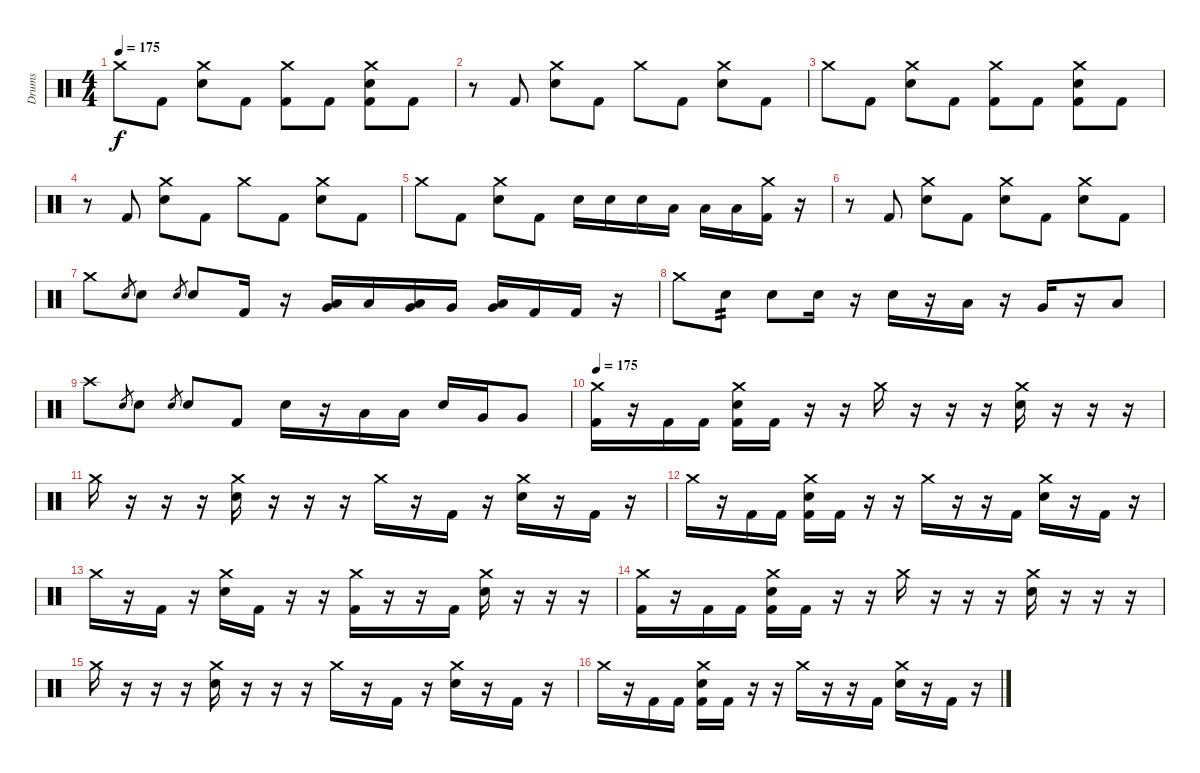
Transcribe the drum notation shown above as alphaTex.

\track ("Drums" "Drums") {instrument percussion}
\staff {score}
\articulation defaults
\ts (4 4)
\tempo 175
\clef neutral
\ks c "Crash medium (hit)".8{dy f} "Kick (hit) 2".8
("Crash medium (hit)" "Electric Snare (hit)").8 "Kick (hit) 2".8 ("Crash medium (hit)" "Kick (hit) 2").8 "Kick (hit) 2".8 ("Crash medium (hit)" "Electric Snare (hit)" "Kick (hit) 2").8 "Kick (hit) 2".8 |
r.8 "Kick (hit) 2".8 ("Crash medium (hit)" "Electric Snare (hit)").8 "Kick (hit) 2".8 "Crash medium (hit)".8 "Kick (hit) 2".8 ("Crash medium (hit)" "Electric Snare (hit)").8 "Kick (hit) 2".8 |
"Crash medium (hit)".8 "Kick (hit) 2".8 ("Crash medium (hit)" "Electric Snare (hit)").8 "Kick (hit) 2".8 ("Crash medium (hit)" "Kick (hit) 2").8 "Kick (hit) 2".8 ("Crash medium (hit)" "Electric Snare (hit)" "Kick (hit) 2").8 "Kick (hit) 2".8 |
r.8 "Kick (hit) 2".8 ("Crash medium (hit)" "Electric Snare (hit)").8 "Kick (hit) 2".8 "Crash medium (hit)".8 "Kick (hit) 2".8 ("Crash medium (hit)" "Electric Snare (hit)").8 "Kick (hit) 2".8 |
"Crash medium (hit)".8 "Kick (hit) 2".8 ("Crash medium (hit)" "Electric Snare (hit)").8 "Kick (hit) 2".8 "Electric Snare (hit)".16 "Electric Snare (hit)".16 "Electric Snare (hit)".16 "Low Tom (hit)".16 "Low Tom (hit)".16 "Low Tom (hit)".16 ("Crash medium (hit)" "Kick (hit) 2").16 r.16 |
r.8 "Kick (hit) 2".8 ("Crash medium (hit)" "Electric Snare (hit)").8 "Kick (hit) 2".8 ("Crash medium (hit)" "Electric Snare (hit)").8 "Kick (hit) 2".8 ("Crash medium (hit)" "Electric Snare (hit)").8 "Kick (hit) 2".8 |
"Crash medium (hit)".8 "Electric Snare (hit)".8{gr} "Electric Snare (hit)".8 "Electric Snare (hit)".8{gr} "Electric Snare (hit)".8 "Kick (hit) 2".16 r.16 ("Low Tom (hit)" "Very Low Tom (hit)").16 "Low Tom (hit)".16 ("Low Tom (hit)" "Very Low Tom (hit)").16 "Very Low Tom (hit)".16 ("Very Low Tom (hit)" "Low Floor Tom (hit)").16 "Kick (hit) 2".16 "Kick (hit) 2".16 r.16 |
"Crash medium (hit)".8 "Electric Snare (hit)".8{tp 2} "Electric Snare (hit)".8 "Electric Snare (hit)".16 r.16 "Electric Snare (hit)".16 r.16 "Low Tom (hit)".16 r.16 "Very Low Tom (hit)".16 r.16 "Low Floor Tom (hit)".8 |
"Crash high (hit)".8 "Electric Snare (hit)".8{gr} "Electric Snare (hit)".8 "Electric Snare (hit)".8{gr} "Electric Snare (hit)".8 "Kick (hit) 2".8 "Electric Snare (hit)".16 r.16 "Low Tom (hit)".16 "Low Tom (hit)".16 "Electric Snare (hit)".16 "Very Low Tom (hit)".16 "Very Low Tom (hit)".8 |
\tempo 175
("Crash medium (hit)" "Kick (hit) 2").16 r.16 "Kick (hit) 2".16 "Kick (hit) 2".16 ("Crash medium (hit)" "Electric Snare (hit)" "Kick (hit) 2").16 "Kick (hit) 2".16 r.16 r.16 "Crash medium (hit)".16 r.16 r.16 r.16 ("Crash medium (hit)" "Electric Snare (hit)").16 r.16 r.16 r.16 |
"Crash medium (hit)".16 r.16 r.16 r.16 ("Crash medium (hit)" "Electric Snare (hit)").16 r.16 r.16 r.16 "Crash medium (hit)".16 r.16 "Kick (hit) 2".16 r.16 ("Crash medium (hit)" "Electric Snare (hit)").16 r.16 "Kick (hit) 2".16 r.16 |
"Crash medium (hit)".16 r.16 "Kick (hit) 2".16 "Kick (hit) 2".16 ("Crash medium (hit)" "Electric Snare (hit)" "Kick (hit) 2").16 "Kick (hit) 2".16 r.16 r.16 "Crash medium (hit)".16 r.16 r.16 "Kick (hit) 2".16 ("Crash medium (hit)" "Electric Snare (hit)").16 r.16 "Kick (hit) 2".16 r.16 |
"Crash medium (hit)".16 r.16 "Kick (hit) 2".16 r.16 ("Crash medium (hit)" "Electric Snare (hit)").16 "Kick (hit) 2".16 r.16 r.16 ("Crash medium (hit)" "Kick (hit) 2").16 r.16 r.16 "Kick (hit) 2".16 ("Crash medium (hit)" "Electric Snare (hit)").16 r.16 r.16 r.16 |
("Crash medium (hit)" "Kick (hit) 2").16 r.16 "Kick (hit) 2".16 "Kick (hit) 2".16 ("Crash medium (hit)" "Electric Snare (hit)" "Kick (hit) 2").16 "Kick (hit) 2".16 r.16 r.16 "Crash medium (hit)".16 r.16 r.16 r.16 ("Crash medium (hit)" "Electric Snare (hit)").16 r.16 r.16 r.16 |
"Crash medium (hit)".16 r.16 r.16 r.16 ("Crash medium (hit)" "Electric Snare (hit)").16 r.16 r.16 r.16 "Crash medium (hit)".16 r.16 "Kick (hit) 2".16 r.16 ("Crash medium (hit)" "Electric Snare (hit)").16 r.16 "Kick (hit) 2".16 r.16 |
"Crash medium (hit)".16 r.16 "Kick (hit) 2".16 "Kick (hit) 2".16 ("Crash medium (hit)" "Electric Snare (hit)" "Kick (hit) 2").16 "Kick (hit) 2".16 r.16 r.16 "Crash medium (hit)".16 r.16 r.16 "Kick (hit) 2".16 ("Crash medium (hit)" "Electric Snare (hit)").16 r.16 "Kick (hit) 2".16 r.16
